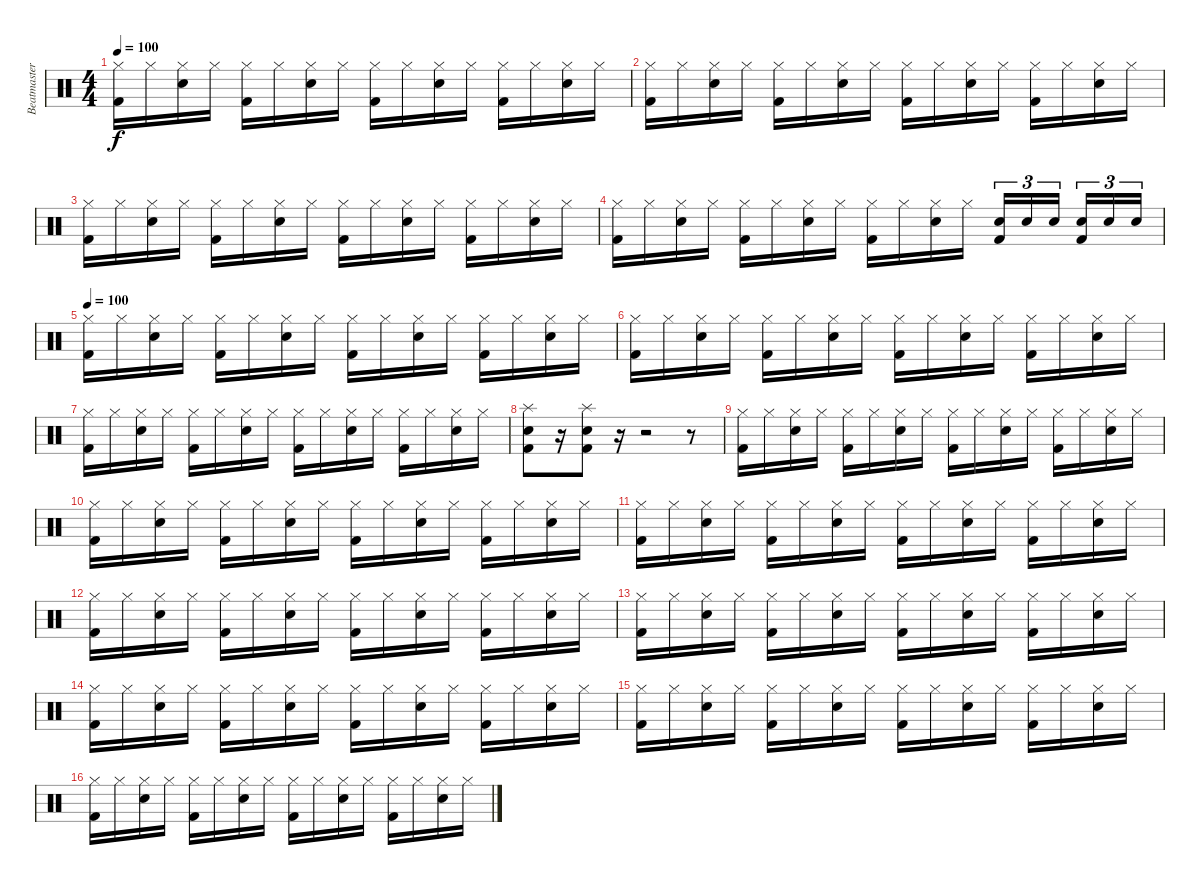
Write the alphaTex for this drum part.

\track ("Beatmaster V." "Beatmaster") {instrument percussion}
\staff {score}
\articulation defaults
\ts (4 4)
\tempo 100
\clef neutral
\ks c
("Hi-Hat (closed)" "Kick (hit) 2").16{dy f} "Hi-Hat (closed)".16 ("Hi-Hat (closed)" "Snare (hit) 2").16 "Hi-Hat (closed)".16 ("Hi-Hat (closed)" "Kick (hit) 2").16 "Hi-Hat (closed)".16 ("Hi-Hat (closed)" "Snare (hit) 2").16 "Hi-Hat (closed)".16 ("Hi-Hat (closed)" "Kick (hit) 2").16 "Hi-Hat (closed)".16 ("Hi-Hat (closed)" "Snare (hit) 2").16 "Hi-Hat (closed)".16 ("Hi-Hat (closed)" "Kick (hit) 2").16 "Hi-Hat (closed)".16 ("Hi-Hat (closed)" "Snare (hit) 2").16 "Hi-Hat (closed)".16 |
("Hi-Hat (closed)" "Kick (hit) 2").16 "Hi-Hat (closed)".16 ("Hi-Hat (closed)" "Snare (hit) 2").16 "Hi-Hat (closed)".16 ("Hi-Hat (closed)" "Kick (hit) 2").16 "Hi-Hat (closed)".16 ("Hi-Hat (closed)" "Snare (hit) 2").16 "Hi-Hat (closed)".16 ("Hi-Hat (closed)" "Kick (hit) 2").16 "Hi-Hat (closed)".16 ("Hi-Hat (closed)" "Snare (hit) 2").16 "Hi-Hat (closed)".16 ("Hi-Hat (closed)" "Kick (hit) 2").16 "Hi-Hat (closed)".16 ("Hi-Hat (closed)" "Snare (hit) 2").16 "Hi-Hat (closed)".16 |
("Hi-Hat (closed)" "Kick (hit) 2").16 "Hi-Hat (closed)".16 ("Hi-Hat (closed)" "Snare (hit) 2").16 "Hi-Hat (closed)".16 ("Hi-Hat (closed)" "Kick (hit) 2").16 "Hi-Hat (closed)".16 ("Hi-Hat (closed)" "Snare (hit) 2").16 "Hi-Hat (closed)".16 ("Hi-Hat (closed)" "Kick (hit) 2").16 "Hi-Hat (closed)".16 ("Hi-Hat (closed)" "Snare (hit) 2").16 "Hi-Hat (closed)".16 ("Hi-Hat (closed)" "Kick (hit) 2").16 "Hi-Hat (closed)".16 ("Hi-Hat (closed)" "Snare (hit) 2").16 "Hi-Hat (closed)".16 |
("Hi-Hat (closed)" "Kick (hit) 2").16 "Hi-Hat (closed)".16 ("Hi-Hat (closed)" "Snare (hit) 2").16 "Hi-Hat (closed)".16 ("Hi-Hat (closed)" "Kick (hit) 2").16 "Hi-Hat (closed)".16 ("Hi-Hat (closed)" "Snare (hit) 2").16 "Hi-Hat (closed)".16 ("Hi-Hat (closed)" "Kick (hit) 2").16 "Hi-Hat (closed)".16 ("Hi-Hat (closed)" "Snare (hit) 2").16 "Hi-Hat (closed)".16 ("Snare (hit) 2" "Kick (hit) 2").16{tu (3 2)} "Snare (hit) 2".16{tu (3 2)} "Snare (hit) 2".16{tu (3 2)} ("Snare (hit) 2" "Kick (hit) 2").16{tu (3 2)} "Snare (hit) 2".16{tu (3 2)} "Snare (hit) 2".16{tu (3 2)} |
\tempo 100
("Hi-Hat (closed)" "Kick (hit) 2").16 "Hi-Hat (closed)".16 ("Hi-Hat (closed)" "Snare (hit) 2").16 "Hi-Hat (closed)".16 ("Hi-Hat (closed)" "Kick (hit) 2").16 "Hi-Hat (closed)".16 ("Hi-Hat (closed)" "Snare (hit) 2").16 "Hi-Hat (closed)".16 ("Hi-Hat (closed)" "Kick (hit) 2").16 "Hi-Hat (closed)".16 ("Hi-Hat (closed)" "Snare (hit) 2").16 "Hi-Hat (closed)".16 ("Hi-Hat (closed)" "Kick (hit) 2").16 "Hi-Hat (closed)".16 ("Hi-Hat (closed)" "Snare (hit) 2").16 "Hi-Hat (closed)".16 |
("Hi-Hat (closed)" "Kick (hit) 2").16 "Hi-Hat (closed)".16 ("Hi-Hat (closed)" "Snare (hit) 2").16 "Hi-Hat (closed)".16 ("Hi-Hat (closed)" "Kick (hit) 2").16 "Hi-Hat (closed)".16 ("Hi-Hat (closed)" "Snare (hit) 2").16 "Hi-Hat (closed)".16 ("Hi-Hat (closed)" "Kick (hit) 2").16 "Hi-Hat (closed)".16 ("Hi-Hat (closed)" "Snare (hit) 2").16 "Hi-Hat (closed)".16 ("Hi-Hat (closed)" "Kick (hit) 2").16 "Hi-Hat (closed)".16 ("Hi-Hat (closed)" "Snare (hit) 2").16 "Hi-Hat (closed)".16 |
("Hi-Hat (closed)" "Kick (hit) 2").16 "Hi-Hat (closed)".16 ("Hi-Hat (closed)" "Snare (hit) 2").16 "Hi-Hat (closed)".16 ("Hi-Hat (closed)" "Kick (hit) 2").16 "Hi-Hat (closed)".16 ("Hi-Hat (closed)" "Snare (hit) 2").16 "Hi-Hat (closed)".16 ("Hi-Hat (closed)" "Kick (hit) 2").16 "Hi-Hat (closed)".16 ("Hi-Hat (closed)" "Snare (hit) 2").16 "Hi-Hat (closed)".16 ("Hi-Hat (closed)" "Kick (hit) 2").16 "Hi-Hat (closed)".16 ("Hi-Hat (closed)" "Snare (hit) 2").16 "Hi-Hat (closed)".16 |
("Splash (hit)" "Snare (hit) 2" "Kick (hit) 2").8 r.16 ("Splash (hit)" "Snare (hit) 2" "Kick (hit) 2").8 r.16 r.2 r.8 |
("Hi-Hat (closed)" "Kick (hit) 2").16 "Hi-Hat (closed)".16 ("Hi-Hat (closed)" "Snare (hit) 2").16 "Hi-Hat (closed)".16 ("Hi-Hat (closed)" "Kick (hit) 2").16 "Hi-Hat (closed)".16 ("Hi-Hat (closed)" "Snare (hit) 2").16 "Hi-Hat (closed)".16 ("Hi-Hat (closed)" "Kick (hit) 2").16 "Hi-Hat (closed)".16 ("Hi-Hat (closed)" "Snare (hit) 2").16 "Hi-Hat (closed)".16 ("Hi-Hat (closed)" "Kick (hit) 2").16 "Hi-Hat (closed)".16 ("Hi-Hat (closed)" "Snare (hit) 2").16 "Hi-Hat (closed)".16 |
("Hi-Hat (closed)" "Kick (hit) 2").16 "Hi-Hat (closed)".16 ("Hi-Hat (closed)" "Snare (hit) 2").16 "Hi-Hat (closed)".16 ("Hi-Hat (closed)" "Kick (hit) 2").16 "Hi-Hat (closed)".16 ("Hi-Hat (closed)" "Snare (hit) 2").16 "Hi-Hat (closed)".16 ("Hi-Hat (closed)" "Kick (hit) 2").16 "Hi-Hat (closed)".16 ("Hi-Hat (closed)" "Snare (hit) 2").16 "Hi-Hat (closed)".16 ("Hi-Hat (closed)" "Kick (hit) 2").16 "Hi-Hat (closed)".16 ("Hi-Hat (closed)" "Snare (hit) 2").16 "Hi-Hat (closed)".16 |
("Hi-Hat (closed)" "Kick (hit) 2").16 "Hi-Hat (closed)".16 ("Hi-Hat (closed)" "Snare (hit) 2").16 "Hi-Hat (closed)".16 ("Hi-Hat (closed)" "Kick (hit) 2").16 "Hi-Hat (closed)".16 ("Hi-Hat (closed)" "Snare (hit) 2").16 "Hi-Hat (closed)".16 ("Hi-Hat (closed)" "Kick (hit) 2").16 "Hi-Hat (closed)".16 ("Hi-Hat (closed)" "Snare (hit) 2").16 "Hi-Hat (closed)".16 ("Hi-Hat (closed)" "Kick (hit) 2").16 "Hi-Hat (closed)".16 ("Hi-Hat (closed)" "Snare (hit) 2").16 "Hi-Hat (closed)".16 |
("Hi-Hat (closed)" "Kick (hit) 2").16 "Hi-Hat (closed)".16 ("Hi-Hat (closed)" "Snare (hit) 2").16 "Hi-Hat (closed)".16 ("Hi-Hat (closed)" "Kick (hit) 2").16 "Hi-Hat (closed)".16 ("Hi-Hat (closed)" "Snare (hit) 2").16 "Hi-Hat (closed)".16 ("Hi-Hat (closed)" "Kick (hit) 2").16 "Hi-Hat (closed)".16 ("Hi-Hat (closed)" "Snare (hit) 2").16 "Hi-Hat (closed)".16 ("Hi-Hat (closed)" "Kick (hit) 2").16 "Hi-Hat (closed)".16 ("Hi-Hat (closed)" "Snare (hit) 2").16 "Hi-Hat (closed)".16 |
("Hi-Hat (closed)" "Kick (hit) 2").16 "Hi-Hat (closed)".16 ("Hi-Hat (closed)" "Snare (hit) 2").16 "Hi-Hat (closed)".16 ("Hi-Hat (closed)" "Kick (hit) 2").16 "Hi-Hat (closed)".16 ("Hi-Hat (closed)" "Snare (hit) 2").16 "Hi-Hat (closed)".16 ("Hi-Hat (closed)" "Kick (hit) 2").16 "Hi-Hat (closed)".16 ("Hi-Hat (closed)" "Snare (hit) 2").16 "Hi-Hat (closed)".16 ("Hi-Hat (closed)" "Kick (hit) 2").16 "Hi-Hat (closed)".16 ("Hi-Hat (closed)" "Snare (hit) 2").16 "Hi-Hat (closed)".16 |
("Hi-Hat (closed)" "Kick (hit) 2").16 "Hi-Hat (closed)".16 ("Hi-Hat (closed)" "Snare (hit) 2").16 "Hi-Hat (closed)".16 ("Hi-Hat (closed)" "Kick (hit) 2").16 "Hi-Hat (closed)".16 ("Hi-Hat (closed)" "Snare (hit) 2").16 "Hi-Hat (closed)".16 ("Hi-Hat (closed)" "Kick (hit) 2").16 "Hi-Hat (closed)".16 ("Hi-Hat (closed)" "Snare (hit) 2").16 "Hi-Hat (closed)".16 ("Hi-Hat (closed)" "Kick (hit) 2").16 "Hi-Hat (closed)".16 ("Hi-Hat (closed)" "Snare (hit) 2").16 "Hi-Hat (closed)".16 |
("Hi-Hat (closed)" "Kick (hit) 2").16 "Hi-Hat (closed)".16 ("Hi-Hat (closed)" "Snare (hit) 2").16 "Hi-Hat (closed)".16 ("Hi-Hat (closed)" "Kick (hit) 2").16 "Hi-Hat (closed)".16 ("Hi-Hat (closed)" "Snare (hit) 2").16 "Hi-Hat (closed)".16 ("Hi-Hat (closed)" "Kick (hit) 2").16 "Hi-Hat (closed)".16 ("Hi-Hat (closed)" "Snare (hit) 2").16 "Hi-Hat (closed)".16 ("Hi-Hat (closed)" "Kick (hit) 2").16 "Hi-Hat (closed)".16 ("Hi-Hat (closed)" "Snare (hit) 2").16 "Hi-Hat (closed)".16 |
("Hi-Hat (closed)" "Kick (hit) 2").16 "Hi-Hat (closed)".16 ("Hi-Hat (closed)" "Snare (hit) 2").16 "Hi-Hat (closed)".16 ("Hi-Hat (closed)" "Kick (hit) 2").16 "Hi-Hat (closed)".16 ("Hi-Hat (closed)" "Snare (hit) 2").16 "Hi-Hat (closed)".16 ("Hi-Hat (closed)" "Kick (hit) 2").16 "Hi-Hat (closed)".16 ("Hi-Hat (closed)" "Snare (hit) 2").16 "Hi-Hat (closed)".16 ("Hi-Hat (closed)" "Kick (hit) 2").16 "Hi-Hat (closed)".16 ("Hi-Hat (closed)" "Snare (hit) 2").16 "Hi-Hat (closed)".16
